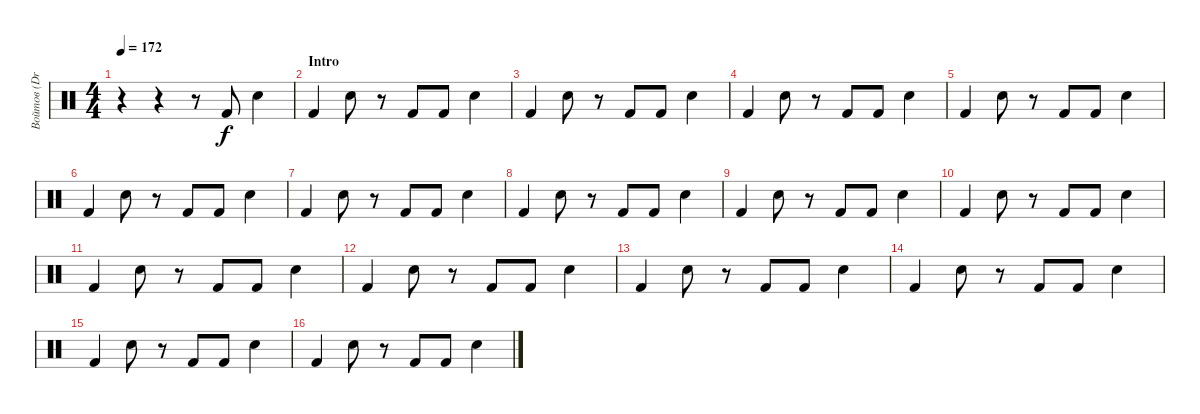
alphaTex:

\track ("Войтов (Drums)" "Войтов (Dr") {instrument percussion}
\staff {score}
\articulation defaults
\ts (4 4)
\tempo 172
\clef neutral
\ks c
r.4{dy f} r.4 r.8 "Kick (hit) 2".8 "Electric Snare (hit)".4 |
\section ("" "Intro")
"Kick (hit) 2".4 "Electric Snare (hit)".8 r.8 "Kick (hit) 2".8 "Kick (hit) 2".8 "Electric Snare (hit)".4 |
"Kick (hit) 2".4 "Electric Snare (hit)".8 r.8 "Kick (hit) 2".8 "Kick (hit) 2".8 "Electric Snare (hit)".4 |
"Kick (hit) 2".4 "Electric Snare (hit)".8 r.8 "Kick (hit) 2".8 "Kick (hit) 2".8 "Electric Snare (hit)".4 |
"Kick (hit) 2".4 "Electric Snare (hit)".8 r.8 "Kick (hit) 2".8 "Kick (hit) 2".8 "Electric Snare (hit)".4 |
"Kick (hit) 2".4 "Electric Snare (hit)".8 r.8 "Kick (hit) 2".8 "Kick (hit) 2".8 "Electric Snare (hit)".4 |
"Kick (hit) 2".4 "Electric Snare (hit)".8 r.8 "Kick (hit) 2".8 "Kick (hit) 2".8 "Electric Snare (hit)".4 |
"Kick (hit) 2".4 "Electric Snare (hit)".8 r.8 "Kick (hit) 2".8 "Kick (hit) 2".8 "Electric Snare (hit)".4 |
"Kick (hit) 2".4 "Electric Snare (hit)".8 r.8 "Kick (hit) 2".8 "Kick (hit) 2".8 "Electric Snare (hit)".4 |
"Kick (hit) 2".4 "Electric Snare (hit)".8 r.8 "Kick (hit) 2".8 "Kick (hit) 2".8 "Electric Snare (hit)".4 |
"Kick (hit) 2".4 "Electric Snare (hit)".8 r.8 "Kick (hit) 2".8 "Kick (hit) 2".8 "Electric Snare (hit)".4 |
"Kick (hit) 2".4 "Electric Snare (hit)".8 r.8 "Kick (hit) 2".8 "Kick (hit) 2".8 "Electric Snare (hit)".4 |
"Kick (hit) 2".4 "Electric Snare (hit)".8 r.8 "Kick (hit) 2".8 "Kick (hit) 2".8 "Electric Snare (hit)".4 |
"Kick (hit) 2".4 "Electric Snare (hit)".8 r.8 "Kick (hit) 2".8 "Kick (hit) 2".8 "Electric Snare (hit)".4 |
"Kick (hit) 2".4 "Electric Snare (hit)".8 r.8 "Kick (hit) 2".8 "Kick (hit) 2".8 "Electric Snare (hit)".4 |
"Kick (hit) 2".4 "Electric Snare (hit)".8 r.8 "Kick (hit) 2".8 "Kick (hit) 2".8 "Electric Snare (hit)".4
